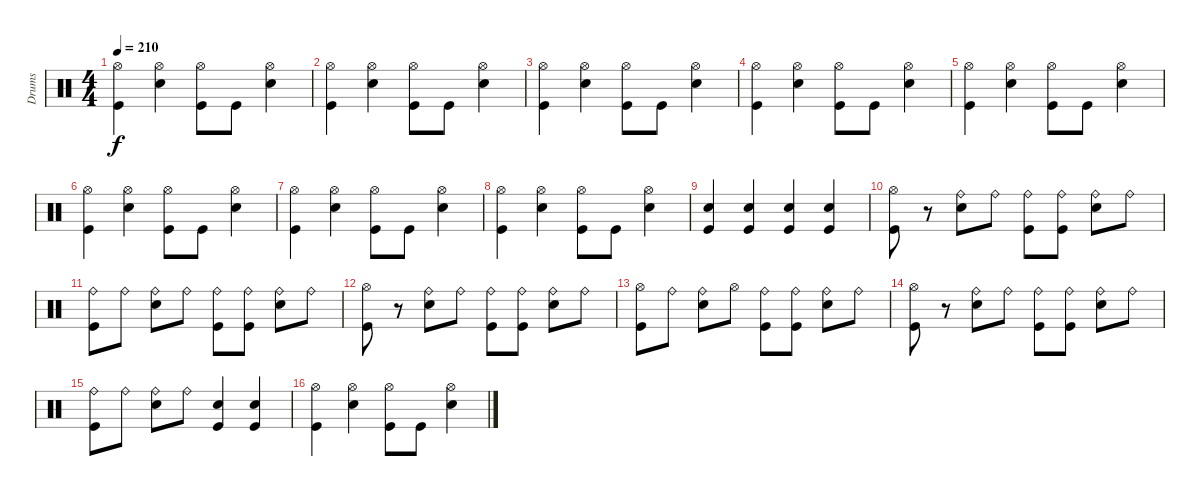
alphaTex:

\track ("Drums" "Drums") {instrument percussion}
\staff {score}
\articulation defaults
\ts (4 4)
\tempo 210
\clef neutral
\ks c
("Hi-Hat (open)" "Kick (hit)").4{dy f} ("Hi-Hat (open)" "Electric Snare (hit)").4 ("Hi-Hat (open)" "Kick (hit)").8 "Kick (hit)".8 ("Hi-Hat (open)" "Electric Snare (hit)").4 |
("Hi-Hat (open)" "Kick (hit)").4 ("Hi-Hat (open)" "Electric Snare (hit)").4 ("Hi-Hat (open)" "Kick (hit)").8 "Kick (hit)".8 ("Hi-Hat (open)" "Electric Snare (hit)").4 |
("Hi-Hat (open)" "Kick (hit)").4 ("Hi-Hat (open)" "Electric Snare (hit)").4 ("Hi-Hat (open)" "Kick (hit)").8 "Kick (hit)".8 ("Hi-Hat (open)" "Electric Snare (hit)").4 |
("Hi-Hat (open)" "Kick (hit)").4 ("Hi-Hat (open)" "Electric Snare (hit)").4 ("Hi-Hat (open)" "Kick (hit)").8 "Kick (hit)".8 ("Hi-Hat (open)" "Electric Snare (hit)").4 |
("Hi-Hat (open)" "Kick (hit)").4 ("Hi-Hat (open)" "Electric Snare (hit)").4 ("Hi-Hat (open)" "Kick (hit)").8 "Kick (hit)".8 ("Hi-Hat (open)" "Electric Snare (hit)").4 |
("Hi-Hat (open)" "Kick (hit)").4 ("Hi-Hat (open)" "Electric Snare (hit)").4 ("Hi-Hat (open)" "Kick (hit)").8 "Kick (hit)".8 ("Hi-Hat (open)" "Electric Snare (hit)").4 |
("Hi-Hat (open)" "Kick (hit)").4 ("Hi-Hat (open)" "Electric Snare (hit)").4 ("Hi-Hat (open)" "Kick (hit)").8 "Kick (hit)".8 ("Hi-Hat (open)" "Electric Snare (hit)").4 |
("Hi-Hat (open)" "Kick (hit)").4 ("Hi-Hat (open)" "Electric Snare (hit)").4 ("Hi-Hat (open)" "Kick (hit)").8 "Kick (hit)".8 ("Hi-Hat (open)" "Electric Snare (hit)").4 |
("Electric Snare (hit)" "Kick (hit)").4 ("Electric Snare (hit)" "Kick (hit)").4 ("Electric Snare (hit)" "Kick (hit)").4 ("Electric Snare (hit)" "Kick (hit)").4 |
("Hi-Hat (open)" "Kick (hit)").8 r.8 ("Ride (bell)" "Electric Snare (hit)").8 "Ride (bell)".8 ("Ride (bell)" "Kick (hit)").8 ("Ride (bell)" "Kick (hit)").8 ("Ride (bell)" "Electric Snare (hit)").8 "Ride (bell)".8 |
("Ride (bell)" "Kick (hit)").8 "Ride (bell)".8 ("Ride (bell)" "Electric Snare (hit)").8 "Ride (bell)".8 ("Ride (bell)" "Kick (hit)").8 ("Ride (bell)" "Kick (hit)").8 ("Ride (bell)" "Electric Snare (hit)").8 "Ride (bell)".8 |
("Hi-Hat (open)" "Kick (hit)").8 r.8 ("Ride (bell)" "Electric Snare (hit)").8 "Ride (bell)".8 ("Ride (bell)" "Kick (hit)").8 ("Ride (bell)" "Kick (hit)").8 ("Ride (bell)" "Electric Snare (hit)").8 "Ride (bell)".8 |
("Hi-Hat (open)" "Kick (hit)").8 "Ride (bell)".8 ("Ride (bell)" "Electric Snare (hit)").8 "Hi-Hat (open)".8 ("Ride (bell)" "Kick (hit)").8 ("Ride (bell)" "Kick (hit)").8 ("Ride (bell)" "Electric Snare (hit)").8 "Ride (bell)".8 |
("Hi-Hat (open)" "Kick (hit)").8 r.8 ("Ride (bell)" "Electric Snare (hit)").8 "Ride (bell)".8 ("Ride (bell)" "Kick (hit)").8 ("Ride (bell)" "Kick (hit)").8 ("Ride (bell)" "Electric Snare (hit)").8 "Ride (bell)".8 |
("Ride (bell)" "Kick (hit)").8 "Ride (bell)".8 ("Ride (bell)" "Electric Snare (hit)").8 "Ride (bell)".8 ("Electric Snare (hit)" "Kick (hit)").4 ("Electric Snare (hit)" "Kick (hit)").4 |
("Hi-Hat (open)" "Kick (hit)").4 ("Hi-Hat (open)" "Electric Snare (hit)").4 ("Hi-Hat (open)" "Kick (hit)").8 "Kick (hit)".8 ("Hi-Hat (open)" "Electric Snare (hit)").4
